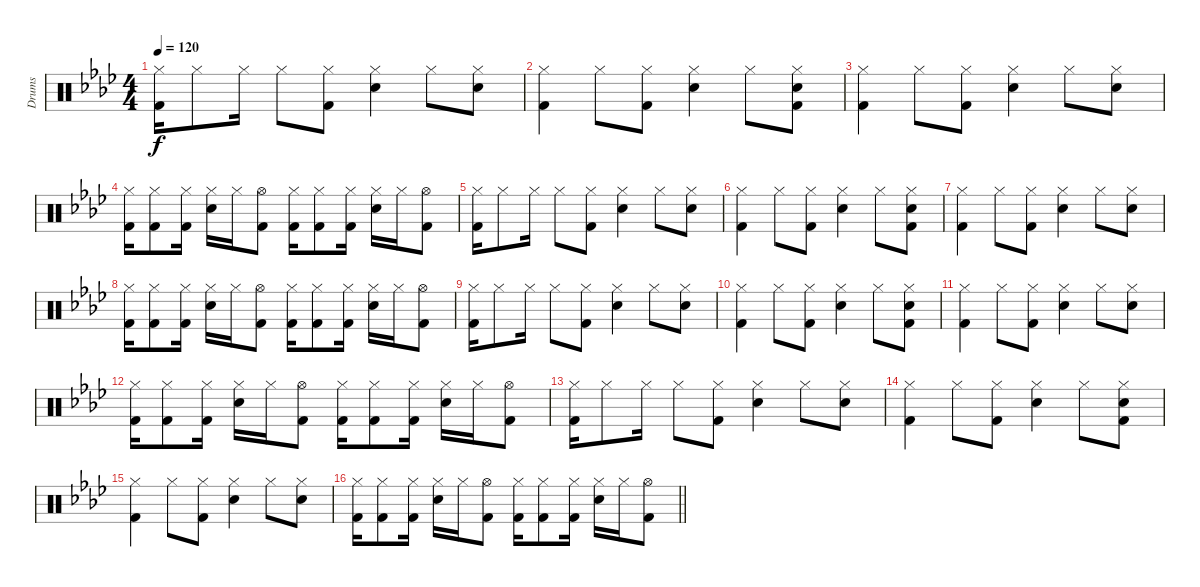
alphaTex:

\track ("Drums" "Drums") {instrument percussion}
\staff {score}
\articulation defaults
\ts (4 4)
\tempo 120
\clef neutral
\ks fminor
("Hi-Hat (closed)" "Kick (hit) 2").16{dy f} "Hi-Hat (closed)".8 "Hi-Hat (closed)".16 "Hi-Hat (closed)".8 ("Hi-Hat (closed)" "Kick (hit) 2").8 ("Hi-Hat (closed)" "Snare (hit) 2").4 "Hi-Hat (closed)".8 ("Hi-Hat (closed)" "Snare (hit) 2").8 |
("Hi-Hat (closed)" "Kick (hit) 2").4 "Hi-Hat (closed)".8 ("Hi-Hat (closed)" "Kick (hit) 2").8 ("Hi-Hat (closed)" "Snare (hit) 2").4 "Hi-Hat (closed)".8 ("Hi-Hat (closed)" "Snare (hit) 2" "Kick (hit) 2").8 |
("Hi-Hat (closed)" "Kick (hit) 2").4 "Hi-Hat (closed)".8 ("Hi-Hat (closed)" "Kick (hit) 2").8 ("Hi-Hat (closed)" "Snare (hit) 2").4 "Hi-Hat (closed)".8 ("Hi-Hat (closed)" "Snare (hit) 2").8 |
("Hi-Hat (closed)" "Kick (hit) 2").16 ("Hi-Hat (closed)" "Kick (hit) 2").8 ("Hi-Hat (closed)" "Kick (hit) 2").16 ("Hi-Hat (closed)" "Snare (hit) 2").16 "Hi-Hat (closed)".16 ("Hi-Hat (open)" "Kick (hit) 2").8 ("Hi-Hat (closed)" "Kick (hit) 2").16 ("Hi-Hat (closed)" "Kick (hit) 2").8 ("Hi-Hat (closed)" "Kick (hit) 2").16 ("Hi-Hat (closed)" "Snare (hit) 2").16 "Hi-Hat (closed)".16 ("Hi-Hat (open)" "Kick (hit) 2").8 |
("Hi-Hat (closed)" "Kick (hit) 2").16 "Hi-Hat (closed)".8 "Hi-Hat (closed)".16 "Hi-Hat (closed)".8 ("Hi-Hat (closed)" "Kick (hit) 2").8 ("Hi-Hat (closed)" "Snare (hit) 2").4 "Hi-Hat (closed)".8 ("Hi-Hat (closed)" "Snare (hit) 2").8 |
("Hi-Hat (closed)" "Kick (hit) 2").4 "Hi-Hat (closed)".8 ("Hi-Hat (closed)" "Kick (hit) 2").8 ("Hi-Hat (closed)" "Snare (hit) 2").4 "Hi-Hat (closed)".8 ("Hi-Hat (closed)" "Snare (hit) 2" "Kick (hit) 2").8 |
("Hi-Hat (closed)" "Kick (hit) 2").4 "Hi-Hat (closed)".8 ("Hi-Hat (closed)" "Kick (hit) 2").8 ("Hi-Hat (closed)" "Snare (hit) 2").4 "Hi-Hat (closed)".8 ("Hi-Hat (closed)" "Snare (hit) 2").8 |
("Hi-Hat (closed)" "Kick (hit) 2").16 ("Hi-Hat (closed)" "Kick (hit) 2").8 ("Hi-Hat (closed)" "Kick (hit) 2").16 ("Hi-Hat (closed)" "Snare (hit) 2").16 "Hi-Hat (closed)".16 ("Hi-Hat (open)" "Kick (hit) 2").8 ("Hi-Hat (closed)" "Kick (hit) 2").16 ("Hi-Hat (closed)" "Kick (hit) 2").8 ("Hi-Hat (closed)" "Kick (hit) 2").16 ("Hi-Hat (closed)" "Snare (hit) 2").16 "Hi-Hat (closed)".16 ("Hi-Hat (open)" "Kick (hit) 2").8 |
("Hi-Hat (closed)" "Kick (hit) 2").16 "Hi-Hat (closed)".8 "Hi-Hat (closed)".16 "Hi-Hat (closed)".8 ("Hi-Hat (closed)" "Kick (hit) 2").8 ("Hi-Hat (closed)" "Snare (hit) 2").4 "Hi-Hat (closed)".8 ("Hi-Hat (closed)" "Snare (hit) 2").8 |
("Hi-Hat (closed)" "Kick (hit) 2").4 "Hi-Hat (closed)".8 ("Hi-Hat (closed)" "Kick (hit) 2").8 ("Hi-Hat (closed)" "Snare (hit) 2").4 "Hi-Hat (closed)".8 ("Hi-Hat (closed)" "Snare (hit) 2" "Kick (hit) 2").8 |
("Hi-Hat (closed)" "Kick (hit) 2").4 "Hi-Hat (closed)".8 ("Hi-Hat (closed)" "Kick (hit) 2").8 ("Hi-Hat (closed)" "Snare (hit) 2").4 "Hi-Hat (closed)".8 ("Hi-Hat (closed)" "Snare (hit) 2").8 |
("Hi-Hat (closed)" "Kick (hit) 2").16 ("Hi-Hat (closed)" "Kick (hit) 2").8 ("Hi-Hat (closed)" "Kick (hit) 2").16 ("Hi-Hat (closed)" "Snare (hit) 2").16 "Hi-Hat (closed)".16 ("Hi-Hat (open)" "Kick (hit) 2").8 ("Hi-Hat (closed)" "Kick (hit) 2").16 ("Hi-Hat (closed)" "Kick (hit) 2").8 ("Hi-Hat (closed)" "Kick (hit) 2").16 ("Hi-Hat (closed)" "Snare (hit) 2").16 "Hi-Hat (closed)".16 ("Hi-Hat (open)" "Kick (hit) 2").8 |
("Hi-Hat (closed)" "Kick (hit) 2").16 "Hi-Hat (closed)".8 "Hi-Hat (closed)".16 "Hi-Hat (closed)".8 ("Hi-Hat (closed)" "Kick (hit) 2").8 ("Hi-Hat (closed)" "Snare (hit) 2").4 "Hi-Hat (closed)".8 ("Hi-Hat (closed)" "Snare (hit) 2").8 |
("Hi-Hat (closed)" "Kick (hit) 2").4 "Hi-Hat (closed)".8 ("Hi-Hat (closed)" "Kick (hit) 2").8 ("Hi-Hat (closed)" "Snare (hit) 2").4 "Hi-Hat (closed)".8 ("Hi-Hat (closed)" "Snare (hit) 2" "Kick (hit) 2").8 |
("Hi-Hat (closed)" "Kick (hit) 2").4 "Hi-Hat (closed)".8 ("Hi-Hat (closed)" "Kick (hit) 2").8 ("Hi-Hat (closed)" "Snare (hit) 2").4 "Hi-Hat (closed)".8 ("Hi-Hat (closed)" "Snare (hit) 2").8 |
\barLineRight lightlight
("Hi-Hat (closed)" "Kick (hit) 2").16 ("Hi-Hat (closed)" "Kick (hit) 2").8 ("Hi-Hat (closed)" "Kick (hit) 2").16 ("Hi-Hat (closed)" "Snare (hit) 2").16 "Hi-Hat (closed)".16 ("Hi-Hat (open)" "Kick (hit) 2").8 ("Hi-Hat (closed)" "Kick (hit) 2").16 ("Hi-Hat (closed)" "Kick (hit) 2").8 ("Hi-Hat (closed)" "Kick (hit) 2").16 ("Hi-Hat (closed)" "Snare (hit) 2").16 "Hi-Hat (closed)".16 ("Hi-Hat (open)" "Kick (hit) 2").8
